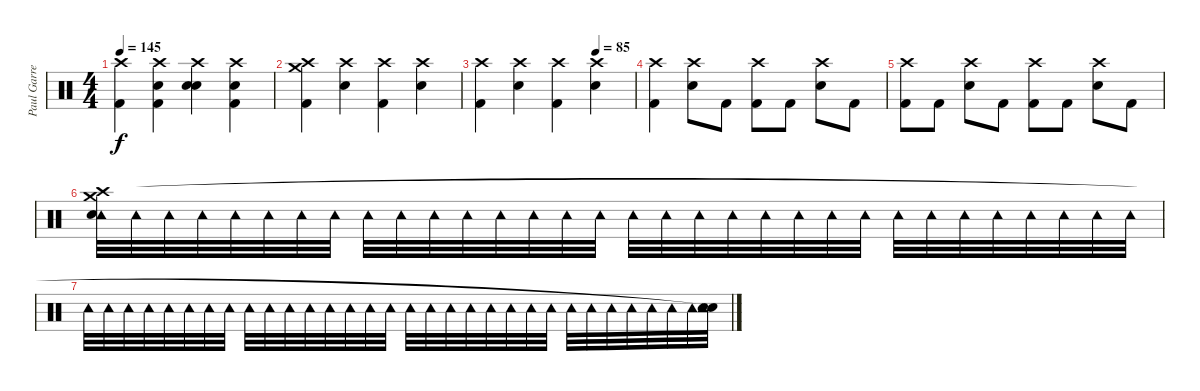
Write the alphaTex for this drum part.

\track ("Paul Garred (Percussion)" "Paul Garre") {instrument percussion}
\staff {score}
\articulation defaults
\ts (4 4)
\tempo 145
\clef neutral
\ks c
("Crash high (hit)" "Kick (hit) 2").4{dy f} ("Crash high (hit)" "Snare (hit) 2" "Kick (hit) 2").4 ("Crash high (hit)" "Snare (hit) 2" "Snare (hit) 2").4 ("Crash high (hit)" "Snare (hit) 2" "Kick (hit) 2").4 |
("Crash medium (hit)" "Crash high (hit)" "Kick (hit) 2").4 ("Crash high (hit)" "Snare (hit) 2").4 ("Crash high (hit)" "Kick (hit) 2").4 ("Crash high (hit)" "Snare (hit) 2").4 |
\tempo (85 0.75)
("Crash high (hit)" "Kick (hit) 2").4 ("Crash high (hit)" "Snare (hit) 2").4 ("Crash high (hit)" "Kick (hit) 2").4 ("Crash high (hit)" "Snare (hit) 2").4 |
("Crash high (hit)" "Kick (hit) 2").4 ("Crash high (hit)" "Snare (hit) 2").8 "Kick (hit) 2".8 ("Crash high (hit)" "Kick (hit) 2").8 "Kick (hit) 2".8 ("Crash high (hit)" "Snare (hit) 2").8 "Kick (hit) 2".8 |
("Crash high (hit)" "Kick (hit) 2").8 "Kick (hit) 2".8 ("Crash high (hit)" "Snare (hit) 2").8 "Kick (hit) 2".8 ("Crash high (hit)" "Kick (hit) 2").8 "Kick (hit) 2".8 ("Crash high (hit)" "Snare (hit) 2").8 "Kick (hit) 2".8 |
("Crash medium (hit)" "Crash high (hit)" "Tambourine (hit)" "Snare (hit) 2").32 "Tambourine (hit)".32 "Tambourine (hit)".32 "Tambourine (hit)".32 "Tambourine (hit)".32 "Tambourine (hit)".32 "Tambourine (hit)".32 "Tambourine (hit)".32 "Tambourine (hit)".32 "Tambourine (hit)".32 "Tambourine (hit)".32 "Tambourine (hit)".32 "Tambourine (hit)".32 "Tambourine (hit)".32 "Tambourine (hit)".32 "Tambourine (hit)".32 "Tambourine (hit)".32 "Tambourine (hit)".32 "Tambourine (hit)".32 "Tambourine (hit)".32 "Tambourine (hit)".32 "Tambourine (hit)".32 "Tambourine (hit)".32 "Tambourine (hit)".32 "Tambourine (hit)".32 "Tambourine (hit)".32 "Tambourine (hit)".32 "Tambourine (hit)".32 "Tambourine (hit)".32 "Tambourine (hit)".32 "Tambourine (hit)".32 "Tambourine (hit)".32 |
"Tambourine (hit)".32 "Tambourine (hit)".32 "Tambourine (hit)".32 "Tambourine (hit)".32 "Tambourine (hit)".32 "Tambourine (hit)".32 "Tambourine (hit)".32 "Tambourine (hit)".32 "Tambourine (hit)".32 "Tambourine (hit)".32 "Tambourine (hit)".32 "Tambourine (hit)".32 "Tambourine (hit)".32 "Tambourine (hit)".32 "Tambourine (hit)".32 "Tambourine (hit)".32 "Tambourine (hit)".32 "Tambourine (hit)".32 "Tambourine (hit)".32 "Tambourine (hit)".32 "Tambourine (hit)".32 "Tambourine (hit)".32 "Tambourine (hit)".32 "Tambourine (hit)".32 "Tambourine (hit)".32 "Tambourine (hit)".32 "Tambourine (hit)".32 "Tambourine (hit)".32 "Tambourine (hit)".32 "Tambourine (hit)".32 "Tambourine (hit)".32 ("Snare (hit)"{t} "Snare (hit)"{t} "Tambourine (hit)").32
